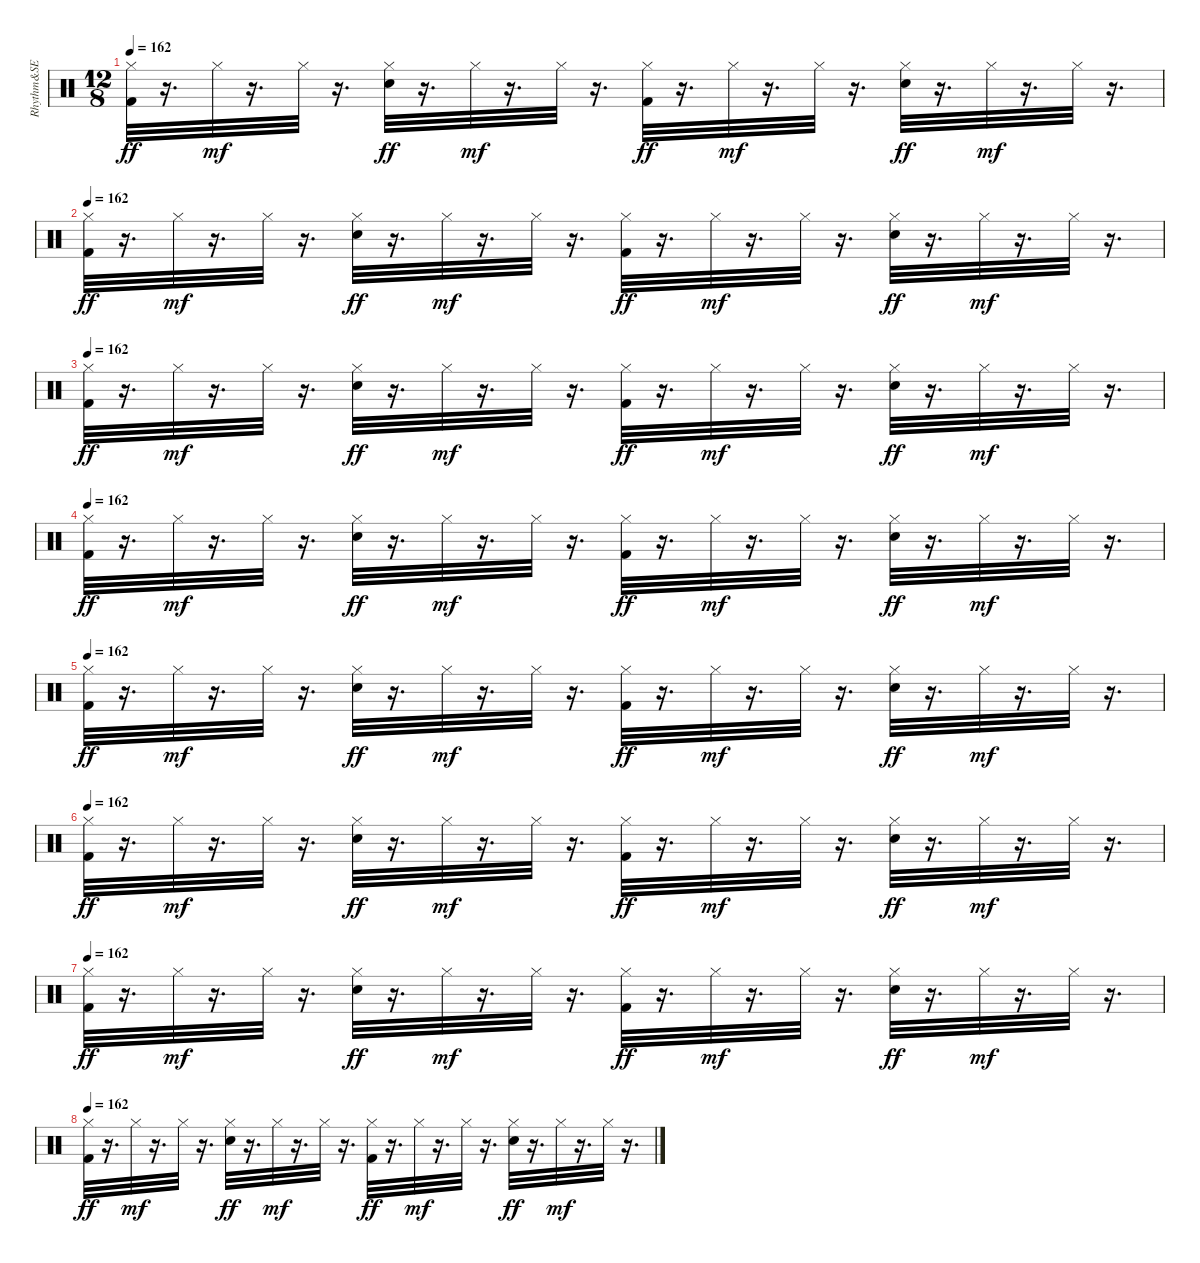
\track ("Rhythm&SE" "Rhythm&SE") {instrument percussion}
\staff {score}
\articulation defaults
\ts (12 8)
\tempo 162
\clef neutral
\ks c
("Kick (hit) 2" "Hi-Hat (closed)").32{dy ff balance 8} r.16{d} "Hi-Hat (closed)".32{dy mf volume 12} r.16{d} "Hi-Hat (closed)".32 r.16{d} ("Snare (hit) 2" "Hi-Hat (closed)").32{dy ff volume 11} r.16{d} "Hi-Hat (closed)".32{dy mf} r.16{d} "Hi-Hat (closed)".32 r.16{d} ("Kick (hit) 2" "Hi-Hat (closed)").32{dy ff volume 11} r.16{d} "Hi-Hat (closed)".32{dy mf} r.16{d} "Hi-Hat (closed)".32{volume 11} r.16{d} ("Snare (hit) 2" "Hi-Hat (closed)").32{dy ff} r.16{d} "Hi-Hat (closed)".32{dy mf volume 11} r.16{d} "Hi-Hat (closed)".32 r.16{d} |
\tempo 162
("Kick (hit) 2" "Hi-Hat (closed)").32{dy ff balance 8} r.16{d} "Hi-Hat (closed)".32{dy mf volume 11} r.16{d} "Hi-Hat (closed)".32 r.16{d} ("Snare (hit) 2" "Hi-Hat (closed)").32{dy ff volume 11} r.16{d} "Hi-Hat (closed)".32{dy mf} r.16{d} "Hi-Hat (closed)".32{volume 11} r.16{d} ("Kick (hit) 2" "Hi-Hat (closed)").32{dy ff} r.16{d} "Hi-Hat (closed)".32{dy mf} r.16{d} "Hi-Hat (closed)".32{volume 10} r.16{d} ("Snare (hit) 2" "Hi-Hat (closed)").32{dy ff} r.16{d} "Hi-Hat (closed)".32{dy mf volume 10} r.16{d} "Hi-Hat (closed)".32 r.16{d} |
\tempo 162
("Kick (hit) 2" "Hi-Hat (closed)").32{dy ff volume 10 balance 8} r.16{d} "Hi-Hat (closed)".32{dy mf} r.16{d} "Hi-Hat (closed)".32{volume 10} r.16{d} ("Snare (hit) 2" "Hi-Hat (closed)").32{dy ff} r.16{d} "Hi-Hat (closed)".32{dy mf} r.16{d} "Hi-Hat (closed)".32{volume 10} r.16{d} ("Kick (hit) 2" "Hi-Hat (closed)").32{dy ff} r.16{d} "Hi-Hat (closed)".32{dy mf volume 10} r.16{d} "Hi-Hat (closed)".32 r.16{d} ("Snare (hit) 2" "Hi-Hat (closed)").32{dy ff volume 10} r.16{d} "Hi-Hat (closed)".32{dy mf} r.16{d} "Hi-Hat (closed)".32 r.16{d} |
\tempo 162
("Kick (hit) 2" "Hi-Hat (closed)").32{dy ff volume 10 balance 8} r.16{d} "Hi-Hat (closed)".32{dy mf} r.16{d} "Hi-Hat (closed)".32{volume 10} r.16{d} ("Snare (hit) 2" "Hi-Hat (closed)").32{dy ff} r.16{d} "Hi-Hat (closed)".32{dy mf volume 9} r.16{d} "Hi-Hat (closed)".32 r.16{d} ("Kick (hit) 2" "Hi-Hat (closed)").32{dy ff volume 9} r.16{d} "Hi-Hat (closed)".32{dy mf} r.16{d} "Hi-Hat (closed)".32 r.16{d} ("Snare (hit) 2" "Hi-Hat (closed)").32{dy ff volume 9} r.16{d} "Hi-Hat (closed)".32{dy mf} r.16{d} "Hi-Hat (closed)".32{volume 9} r.16{d} |
\tempo 162
("Kick (hit) 2" "Hi-Hat (closed)").32{dy ff balance 8} r.16{d} "Hi-Hat (closed)".32{dy mf volume 9} r.16{d} "Hi-Hat (closed)".32 r.16{d} ("Snare (hit) 2" "Hi-Hat (closed)").32{dy ff} r.16{d} "Hi-Hat (closed)".32{dy mf volume 9} r.16{d} "Hi-Hat (closed)".32 r.16{d} ("Kick (hit) 2" "Hi-Hat (closed)").32{dy ff volume 9} r.16{d} "Hi-Hat (closed)".32{dy mf} r.16{d} "Hi-Hat (closed)".32{volume 8} r.16{d} ("Snare (hit) 2" "Hi-Hat (closed)").32{dy ff} r.16{d} "Hi-Hat (closed)".32{dy mf volume 8} r.16{d} "Hi-Hat (closed)".32 r.16{d} |
\tempo 162
("Kick (hit) 2" "Hi-Hat (closed)").32{dy ff balance 8} r.16{d} "Hi-Hat (closed)".32{dy mf volume 8} r.16{d} "Hi-Hat (closed)".32 r.16{d} ("Snare (hit) 2" "Hi-Hat (closed)").32{dy ff volume 8} r.16{d} "Hi-Hat (closed)".32{dy mf} r.16{d} "Hi-Hat (closed)".32{volume 8} r.16{d} ("Kick (hit) 2" "Hi-Hat (closed)").32{dy ff} r.16{d} "Hi-Hat (closed)".32{dy mf} r.16{d} "Hi-Hat (closed)".32{volume 8} r.16{d} ("Snare (hit) 2" "Hi-Hat (closed)").32{dy ff} r.16{d} "Hi-Hat (closed)".32{dy mf volume 8} r.16{d} "Hi-Hat (closed)".32 r.16{d} |
\tempo 162
("Kick (hit) 2" "Hi-Hat (closed)").32{dy ff balance 8} r.16{d} "Hi-Hat (closed)".32{dy mf} r.16{d} "Hi-Hat (closed)".32 r.16{d} ("Snare (hit) 2" "Hi-Hat (closed)").32{dy ff volume 8} r.16{d} "Hi-Hat (closed)".32{dy mf} r.16{d} "Hi-Hat (closed)".32{volume 7} r.16{d} ("Kick (hit) 2" "Hi-Hat (closed)").32{dy ff} r.16{d} "Hi-Hat (closed)".32{dy mf volume 7} r.16{d} "Hi-Hat (closed)".32 r.16{d} ("Snare (hit) 2" "Hi-Hat (closed)").32{dy ff volume 7} r.16{d} "Hi-Hat (closed)".32{dy mf} r.16{d} "Hi-Hat (closed)".32 r.16{d} |
\tempo 162
("Kick (hit) 2" "Hi-Hat (closed)").32{dy ff volume 7 balance 8} r.16{d} "Hi-Hat (closed)".32{dy mf} r.16{d} "Hi-Hat (closed)".32{volume 7} r.16{d} ("Snare (hit) 2" "Hi-Hat (closed)").32{dy ff} r.16{d} "Hi-Hat (closed)".32{dy mf volume 7} r.16{d} "Hi-Hat (closed)".32 r.16{d} ("Kick (hit) 2" "Hi-Hat (closed)").32{dy ff} r.16{d} "Hi-Hat (closed)".32{dy mf volume 7} r.16{d} "Hi-Hat (closed)".32 r.16{d} ("Snare (hit) 2" "Hi-Hat (closed)").32{dy ff volume 6} r.16{d} "Hi-Hat (closed)".32{dy mf} r.16{d} "Hi-Hat (closed)".32{volume 6} r.16{d}
